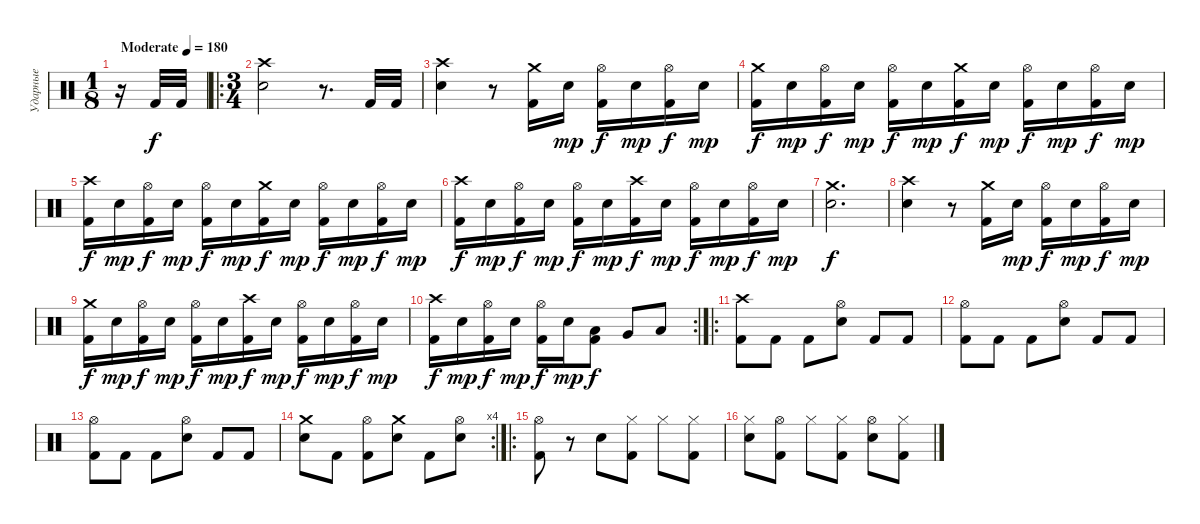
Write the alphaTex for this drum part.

\track ("Ударные" "Ударные") {instrument percussion}
\staff {score}
\articulation defaults
\ts (1 8)
\tempo (180 "Moderate")
\clef neutral
\ks c
r.16{dy f} "Kick (hit) 2".32 "Kick (hit) 2".32 |
\ro
\ts (3 4)
("Crash high (hit)" "Electric Snare (hit)").2 r.8{d} "Kick (hit) 2".32 "Kick (hit) 2".32 |
("Crash high (hit)" "Electric Snare (hit)").4 r.8 ("Crash medium (hit)" "Kick (hit) 2").16 "Electric Snare (hit)".16{dy mp} ("Hi-Hat (open)" "Kick (hit) 2").16{dy f} "Electric Snare (hit)".16{dy mp} ("Hi-Hat (open)" "Kick (hit) 2").16{dy f} "Electric Snare (hit)".16{dy mp} |
("Crash medium (hit)" "Kick (hit) 2").16{dy f} "Electric Snare (hit)".16{dy mp} ("Hi-Hat (open)" "Kick (hit) 2").16{dy f} "Electric Snare (hit)".16{dy mp} ("Hi-Hat (open)" "Kick (hit) 2").16{dy f} "Electric Snare (hit)".16{dy mp} ("Crash medium (hit)" "Kick (hit) 2").16{dy f} "Electric Snare (hit)".16{dy mp} ("Hi-Hat (open)" "Kick (hit) 2").16{dy f} "Electric Snare (hit)".16{dy mp} ("Hi-Hat (open)" "Kick (hit) 2").16{dy f} "Electric Snare (hit)".16{dy mp} |
("Crash high (hit)" "Kick (hit) 2").16{dy f} "Electric Snare (hit)".16{dy mp} ("Hi-Hat (open)" "Kick (hit) 2").16{dy f} "Electric Snare (hit)".16{dy mp} ("Hi-Hat (open)" "Kick (hit) 2").16{dy f} "Electric Snare (hit)".16{dy mp} ("Crash medium (hit)" "Kick (hit) 2").16{dy f} "Electric Snare (hit)".16{dy mp} ("Hi-Hat (open)" "Kick (hit) 2").16{dy f} "Electric Snare (hit)".16{dy mp} ("Hi-Hat (open)" "Kick (hit) 2").16{dy f} "Electric Snare (hit)".16{dy mp} |
("Crash high (hit)" "Kick (hit) 2").16{dy f} "Electric Snare (hit)".16{dy mp} ("Hi-Hat (open)" "Kick (hit) 2").16{dy f} "Electric Snare (hit)".16{dy mp} ("Hi-Hat (open)" "Kick (hit) 2").16{dy f} "Electric Snare (hit)".16{dy mp} ("Crash high (hit)" "Kick (hit) 2").16{dy f} "Electric Snare (hit)".16{dy mp} ("Hi-Hat (open)" "Kick (hit) 2").16{dy f} "Electric Snare (hit)".16{dy mp} ("Hi-Hat (open)" "Kick (hit) 2").16{dy f} "Electric Snare (hit)".16{dy mp} |
("Crash medium (hit)" "Electric Snare (hit)").2{d dy f} |
("Crash high (hit)" "Electric Snare (hit)").4 r.8 ("Crash medium (hit)" "Kick (hit) 2").16 "Electric Snare (hit)".16{dy mp} ("Hi-Hat (open)" "Kick (hit) 2").16{dy f} "Electric Snare (hit)".16{dy mp} ("Hi-Hat (open)" "Kick (hit) 2").16{dy f} "Electric Snare (hit)".16{dy mp} |
("Crash medium (hit)" "Kick (hit) 2").16{dy f} "Electric Snare (hit)".16{dy mp} ("Hi-Hat (open)" "Kick (hit) 2").16{dy f} "Electric Snare (hit)".16{dy mp} ("Hi-Hat (open)" "Kick (hit) 2").16{dy f} "Electric Snare (hit)".16{dy mp} ("Crash high (hit)" "Kick (hit) 2").16{dy f} "Electric Snare (hit)".16{dy mp} ("Hi-Hat (open)" "Kick (hit) 2").16{dy f} "Electric Snare (hit)".16{dy mp} ("Hi-Hat (open)" "Kick (hit) 2").16{dy f} "Electric Snare (hit)".16{dy mp} |
\rc 2
("Crash high (hit)" "Kick (hit) 2").16{dy f} "Electric Snare (hit)".16{dy mp} ("Hi-Hat (open)" "Kick (hit) 2").16{dy f} "Electric Snare (hit)".16{dy mp} ("Hi-Hat (open)" "Kick (hit) 2").16{dy f} "Electric Snare (hit)".16{dy mp} ("Low Tom (hit)" "Kick (hit) 2").8{dy f} "Very Low Tom (hit)".8 "Low Floor Tom (hit)".8 |
\ro
("Crash high (hit)" "Kick (hit) 2").8 "Kick (hit) 2".8 "Kick (hit) 2".8 ("Hi-Hat (open)" "Electric Snare (hit)").8 "Kick (hit) 2".8 "Kick (hit) 2".8 |
("Hi-Hat (open)" "Kick (hit) 2").8 "Kick (hit) 2".8 "Kick (hit) 2".8 ("Hi-Hat (open)" "Electric Snare (hit)").8 "Kick (hit) 2".8 "Kick (hit) 2".8 |
("Hi-Hat (open)" "Kick (hit) 2").8 "Kick (hit) 2".8 "Kick (hit) 2".8 ("Hi-Hat (open)" "Electric Snare (hit)").8 "Kick (hit) 2".8 "Kick (hit) 2".8 |
\rc 4
("Crash medium (hit)" "Electric Snare (hit)").8 "Kick (hit) 2".8 ("Hi-Hat (open)" "Kick (hit) 2").8 ("Crash medium (hit)" "Electric Snare (hit)").8 "Kick (hit) 2".8 ("Hi-Hat (open)" "Electric Snare (hit)").8 |
\ro
("Hi-Hat (open)" "Kick (hit) 2").8 r.8 "Electric Snare (hit)".8 ("Hi-Hat (closed)" "Kick (hit) 2").8 "Hi-Hat (closed)".8 ("Hi-Hat (closed)" "Kick (hit) 2").8 |
("Hi-Hat (closed)" "Electric Snare (hit)").8 ("Hi-Hat (open)" "Kick (hit) 2").8 "Hi-Hat (closed)".8 ("Hi-Hat (closed)" "Kick (hit) 2").8 ("Hi-Hat (open)" "Electric Snare (hit)").8 ("Hi-Hat (closed)" "Kick (hit) 2").8
